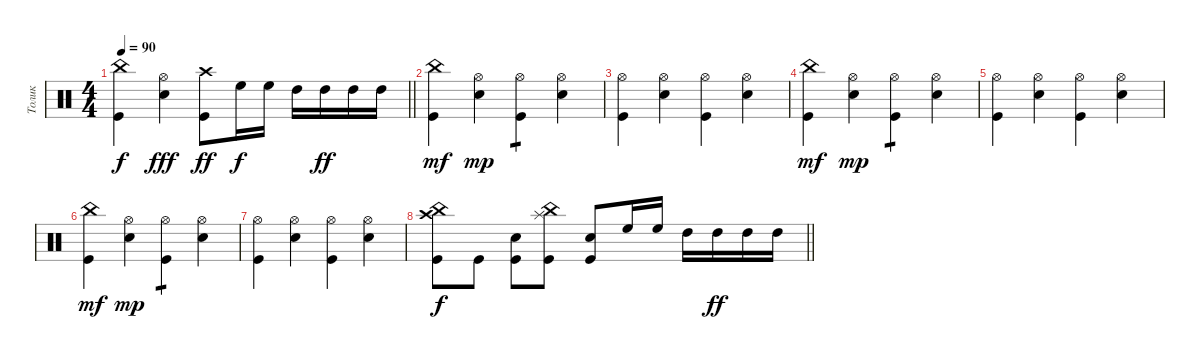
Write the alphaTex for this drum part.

\track ("Толик" "Толик") {instrument percussion}
\staff {score}
\articulation defaults
\ts (4 4)
\tempo 90
\clef neutral
\barLineRight lightlight
\ks c
("China (hit)" "Kick (hit)").4{dy f} ("Snare (hit) 2" "Hi-Hat (open)").4{dy fff} ("Kick (hit)" "Crash high (hit)").8{dy ff} "High Floor Tom (hit)".16{dy f} "High Floor Tom (hit)".16 "High Tom (hit)".16 "High Tom (hit)".16{dy ff} "High Tom (hit)".16 "High Tom (hit)".16 |
("China (hit)" "Kick (hit)").4{dy mf} ("Snare (hit) 2" "Hi-Hat (open)").4{dy mp} ("Kick (hit)" "Hi-Hat (open)").4{tp 1} ("Snare (hit) 2" "Hi-Hat (open)").4 |
("Kick (hit)" "Hi-Hat (open)").4 ("Snare (hit) 2" "Hi-Hat (open)").4 ("Kick (hit)" "Hi-Hat (open)").4 ("Snare (hit) 2" "Hi-Hat (open)").4 |
("China (hit)" "Kick (hit)").4{dy mf} ("Snare (hit) 2" "Hi-Hat (open)").4{dy mp} ("Kick (hit)" "Hi-Hat (open)").4{tp 1} ("Snare (hit) 2" "Hi-Hat (open)").4 |
("Kick (hit)" "Hi-Hat (open)").4 ("Snare (hit) 2" "Hi-Hat (open)").4 ("Kick (hit)" "Hi-Hat (open)").4 ("Snare (hit) 2" "Hi-Hat (open)").4 |
("China (hit)" "Kick (hit)").4{dy mf} ("Snare (hit) 2" "Hi-Hat (open)").4{dy mp} ("Kick (hit)" "Hi-Hat (open)").4{tp 1} ("Snare (hit) 2" "Hi-Hat (open)").4 |
("Kick (hit)" "Hi-Hat (open)").4 ("Snare (hit) 2" "Hi-Hat (open)").4 ("Kick (hit)" "Hi-Hat (open)").4 ("Snare (hit) 2" "Hi-Hat (open)").4 |
\barLineRight lightlight
("Crash high (hit)" "China (hit)" "Kick (hit)").8{dy f} "Kick (hit)".8 ("Kick (hit)" "Snare (hit) 2").8 ("China (hit)" "Splash (hit)" "Kick (hit)").8 ("Snare (hit) 2" "Kick (hit)").8 "High Floor Tom (hit)".16 "High Floor Tom (hit)".16 "High Tom (hit)".16 "High Tom (hit)".16{dy ff} "High Tom (hit)".16 "High Tom (hit)".16
